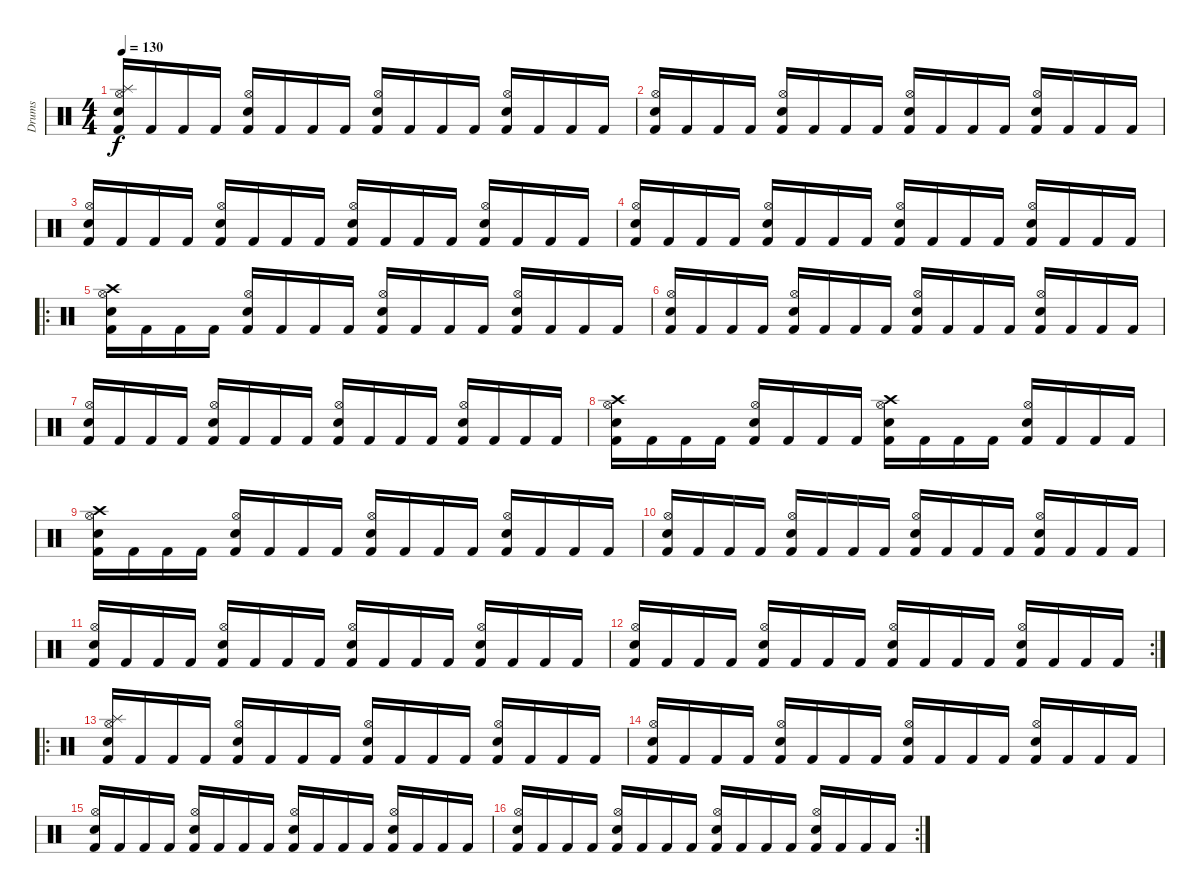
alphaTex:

\track ("Drums" "Drums") {instrument percussion}
\staff {score}
\articulation defaults
\ts (4 4)
\tempo 130
\clef neutral
\ks c
("Snare (hit) 2" "Splash (hit)" "Hi-Hat (open)" "Kick (hit) 2").16{dy f} "Kick (hit) 2".16 "Kick (hit) 2".16 "Kick (hit) 2".16 ("Hi-Hat (open)" "Snare (hit) 2" "Kick (hit) 2").16 "Kick (hit) 2".16 "Kick (hit) 2".16 "Kick (hit) 2".16 ("Snare (hit) 2" "Hi-Hat (open)" "Kick (hit) 2").16 "Kick (hit) 2".16 "Kick (hit) 2".16 "Kick (hit) 2".16 ("Hi-Hat (open)" "Snare (hit) 2" "Kick (hit) 2").16 "Kick (hit) 2".16 "Kick (hit) 2".16 "Kick (hit) 2".16 |
("Kick (hit) 2" "Hi-Hat (open)" "Snare (hit) 2").16 "Kick (hit) 2".16 "Kick (hit) 2".16 "Kick (hit) 2".16 ("Hi-Hat (open)" "Snare (hit) 2" "Kick (hit) 2").16 "Kick (hit) 2".16 "Kick (hit) 2".16 "Kick (hit) 2".16 ("Kick (hit) 2" "Hi-Hat (open)" "Snare (hit) 2").16 "Kick (hit) 2".16 "Kick (hit) 2".16 "Kick (hit) 2".16 ("Hi-Hat (open)" "Snare (hit) 2" "Kick (hit) 2").16 "Kick (hit) 2".16 "Kick (hit) 2".16 "Kick (hit) 2".16 |
("Kick (hit) 2" "Hi-Hat (open)" "Snare (hit) 2").16 "Kick (hit) 2".16 "Kick (hit) 2".16 "Kick (hit) 2".16 ("Hi-Hat (open)" "Snare (hit) 2" "Kick (hit) 2").16 "Kick (hit) 2".16 "Kick (hit) 2".16 "Kick (hit) 2".16 ("Kick (hit) 2" "Hi-Hat (open)" "Snare (hit) 2").16 "Kick (hit) 2".16 "Kick (hit) 2".16 "Kick (hit) 2".16 ("Hi-Hat (open)" "Snare (hit) 2" "Kick (hit) 2").16 "Kick (hit) 2".16 "Kick (hit) 2".16 "Kick (hit) 2".16 |
("Kick (hit) 2" "Hi-Hat (open)" "Snare (hit) 2").16 "Kick (hit) 2".16 "Kick (hit) 2".16 "Kick (hit) 2".16 ("Hi-Hat (open)" "Snare (hit) 2" "Kick (hit) 2").16 "Kick (hit) 2".16 "Kick (hit) 2".16 "Kick (hit) 2".16 ("Kick (hit) 2" "Hi-Hat (open)" "Snare (hit) 2").16 "Kick (hit) 2".16 "Kick (hit) 2".16 "Kick (hit) 2".16 ("Hi-Hat (open)" "Snare (hit) 2" "Kick (hit) 2").16 "Kick (hit) 2".16 "Kick (hit) 2".16 "Kick (hit) 2".16 |
\ro
("Snare (hit) 2" "Crash high (hit)" "Hi-Hat (open)" "Kick (hit) 2").16 "Kick (hit) 2".16 "Kick (hit) 2".16 "Kick (hit) 2".16 ("Hi-Hat (open)" "Snare (hit) 2" "Kick (hit) 2").16 "Kick (hit) 2".16 "Kick (hit) 2".16 "Kick (hit) 2".16 ("Snare (hit) 2" "Hi-Hat (open)" "Kick (hit) 2").16 "Kick (hit) 2".16 "Kick (hit) 2".16 "Kick (hit) 2".16 ("Hi-Hat (open)" "Snare (hit) 2" "Kick (hit) 2").16 "Kick (hit) 2".16 "Kick (hit) 2".16 "Kick (hit) 2".16 |
("Snare (hit) 2" "Hi-Hat (open)" "Kick (hit) 2").16 "Kick (hit) 2".16 "Kick (hit) 2".16 "Kick (hit) 2".16 ("Hi-Hat (open)" "Snare (hit) 2" "Kick (hit) 2").16 "Kick (hit) 2".16 "Kick (hit) 2".16 "Kick (hit) 2".16 ("Snare (hit) 2" "Hi-Hat (open)" "Kick (hit) 2").16 "Kick (hit) 2".16 "Kick (hit) 2".16 "Kick (hit) 2".16 ("Hi-Hat (open)" "Snare (hit) 2" "Kick (hit) 2").16 "Kick (hit) 2".16 "Kick (hit) 2".16 "Kick (hit) 2".16 |
("Kick (hit) 2" "Hi-Hat (open)" "Snare (hit) 2").16 "Kick (hit) 2".16 "Kick (hit) 2".16 "Kick (hit) 2".16 ("Hi-Hat (open)" "Snare (hit) 2" "Kick (hit) 2").16 "Kick (hit) 2".16 "Kick (hit) 2".16 "Kick (hit) 2".16 ("Kick (hit) 2" "Hi-Hat (open)" "Snare (hit) 2").16 "Kick (hit) 2".16 "Kick (hit) 2".16 "Kick (hit) 2".16 ("Hi-Hat (open)" "Snare (hit) 2" "Kick (hit) 2").16 "Kick (hit) 2".16 "Kick (hit) 2".16 "Kick (hit) 2".16 |
("Crash high (hit)" "Kick (hit) 2" "Hi-Hat (open)" "Snare (hit) 2").16 "Kick (hit) 2".16 "Kick (hit) 2".16 "Kick (hit) 2".16 ("Hi-Hat (open)" "Snare (hit) 2" "Kick (hit) 2").16 "Kick (hit) 2".16 "Kick (hit) 2".16 "Kick (hit) 2".16 ("Crash high (hit)" "Kick (hit) 2" "Hi-Hat (open)" "Snare (hit) 2").16 "Kick (hit) 2".16 "Kick (hit) 2".16 "Kick (hit) 2".16 ("Hi-Hat (open)" "Snare (hit) 2" "Kick (hit) 2").16 "Kick (hit) 2".16 "Kick (hit) 2".16 "Kick (hit) 2".16 |
("Crash high (hit)" "Kick (hit) 2" "Hi-Hat (open)" "Snare (hit) 2").16 "Kick (hit) 2".16 "Kick (hit) 2".16 "Kick (hit) 2".16 ("Hi-Hat (open)" "Snare (hit) 2" "Kick (hit) 2").16 "Kick (hit) 2".16 "Kick (hit) 2".16 "Kick (hit) 2".16 ("Kick (hit) 2" "Hi-Hat (open)" "Snare (hit) 2").16 "Kick (hit) 2".16 "Kick (hit) 2".16 "Kick (hit) 2".16 ("Hi-Hat (open)" "Snare (hit) 2" "Kick (hit) 2").16 "Kick (hit) 2".16 "Kick (hit) 2".16 "Kick (hit) 2".16 |
("Kick (hit) 2" "Hi-Hat (open)" "Snare (hit) 2").16 "Kick (hit) 2".16 "Kick (hit) 2".16 "Kick (hit) 2".16 ("Hi-Hat (open)" "Snare (hit) 2" "Kick (hit) 2").16 "Kick (hit) 2".16 "Kick (hit) 2".16 "Kick (hit) 2".16 ("Kick (hit) 2" "Hi-Hat (open)" "Snare (hit) 2").16 "Kick (hit) 2".16 "Kick (hit) 2".16 "Kick (hit) 2".16 ("Hi-Hat (open)" "Snare (hit) 2" "Kick (hit) 2").16 "Kick (hit) 2".16 "Kick (hit) 2".16 "Kick (hit) 2".16 |
("Kick (hit) 2" "Hi-Hat (open)" "Snare (hit) 2").16 "Kick (hit) 2".16 "Kick (hit) 2".16 "Kick (hit) 2".16 ("Hi-Hat (open)" "Snare (hit) 2" "Kick (hit) 2").16 "Kick (hit) 2".16 "Kick (hit) 2".16 "Kick (hit) 2".16 ("Kick (hit) 2" "Hi-Hat (open)" "Snare (hit) 2").16 "Kick (hit) 2".16 "Kick (hit) 2".16 "Kick (hit) 2".16 ("Hi-Hat (open)" "Snare (hit) 2" "Kick (hit) 2").16 "Kick (hit) 2".16 "Kick (hit) 2".16 "Kick (hit) 2".16 |
\rc 2
("Kick (hit) 2" "Hi-Hat (open)" "Snare (hit) 2").16 "Kick (hit) 2".16 "Kick (hit) 2".16 "Kick (hit) 2".16 ("Hi-Hat (open)" "Snare (hit) 2" "Kick (hit) 2").16 "Kick (hit) 2".16 "Kick (hit) 2".16 "Kick (hit) 2".16 ("Kick (hit) 2" "Hi-Hat (open)" "Snare (hit) 2").16 "Kick (hit) 2".16 "Kick (hit) 2".16 "Kick (hit) 2".16 ("Hi-Hat (open)" "Snare (hit) 2" "Kick (hit) 2").16 "Kick (hit) 2".16 "Kick (hit) 2".16 "Kick (hit) 2".16 |
\ro
("Splash (hit)" "Kick (hit) 2" "Hi-Hat (open)" "Snare (hit) 2").16 "Kick (hit) 2".16 "Kick (hit) 2".16 "Kick (hit) 2".16 ("Hi-Hat (open)" "Snare (hit) 2" "Kick (hit) 2").16 "Kick (hit) 2".16 "Kick (hit) 2".16 "Kick (hit) 2".16 ("Kick (hit) 2" "Hi-Hat (open)" "Snare (hit) 2").16 "Kick (hit) 2".16 "Kick (hit) 2".16 "Kick (hit) 2".16 ("Hi-Hat (open)" "Snare (hit) 2" "Kick (hit) 2").16 "Kick (hit) 2".16 "Kick (hit) 2".16 "Kick (hit) 2".16 |
("Kick (hit) 2" "Hi-Hat (open)" "Snare (hit) 2").16 "Kick (hit) 2".16 "Kick (hit) 2".16 "Kick (hit) 2".16 ("Hi-Hat (open)" "Snare (hit) 2" "Kick (hit) 2").16 "Kick (hit) 2".16 "Kick (hit) 2".16 "Kick (hit) 2".16 ("Kick (hit) 2" "Hi-Hat (open)" "Snare (hit) 2").16 "Kick (hit) 2".16 "Kick (hit) 2".16 "Kick (hit) 2".16 ("Hi-Hat (open)" "Snare (hit) 2" "Kick (hit) 2").16 "Kick (hit) 2".16 "Kick (hit) 2".16 "Kick (hit) 2".16 |
("Kick (hit) 2" "Hi-Hat (open)" "Snare (hit) 2").16 "Kick (hit) 2".16 "Kick (hit) 2".16 "Kick (hit) 2".16 ("Hi-Hat (open)" "Snare (hit) 2" "Kick (hit) 2").16 "Kick (hit) 2".16 "Kick (hit) 2".16 "Kick (hit) 2".16 ("Kick (hit) 2" "Hi-Hat (open)" "Snare (hit) 2").16 "Kick (hit) 2".16 "Kick (hit) 2".16 "Kick (hit) 2".16 ("Hi-Hat (open)" "Snare (hit) 2" "Kick (hit) 2").16 "Kick (hit) 2".16 "Kick (hit) 2".16 "Kick (hit) 2".16 |
\rc 2
("Kick (hit) 2" "Hi-Hat (open)" "Snare (hit) 2").16 "Kick (hit) 2".16 "Kick (hit) 2".16 "Kick (hit) 2".16 ("Hi-Hat (open)" "Snare (hit) 2" "Kick (hit) 2").16 "Kick (hit) 2".16 "Kick (hit) 2".16 "Kick (hit) 2".16 ("Kick (hit) 2" "Hi-Hat (open)" "Snare (hit) 2").16 "Kick (hit) 2".16 "Kick (hit) 2".16 "Kick (hit) 2".16 ("Hi-Hat (open)" "Snare (hit) 2" "Kick (hit) 2").16 "Kick (hit) 2".16 "Kick (hit) 2".16 "Kick (hit) 2".16
